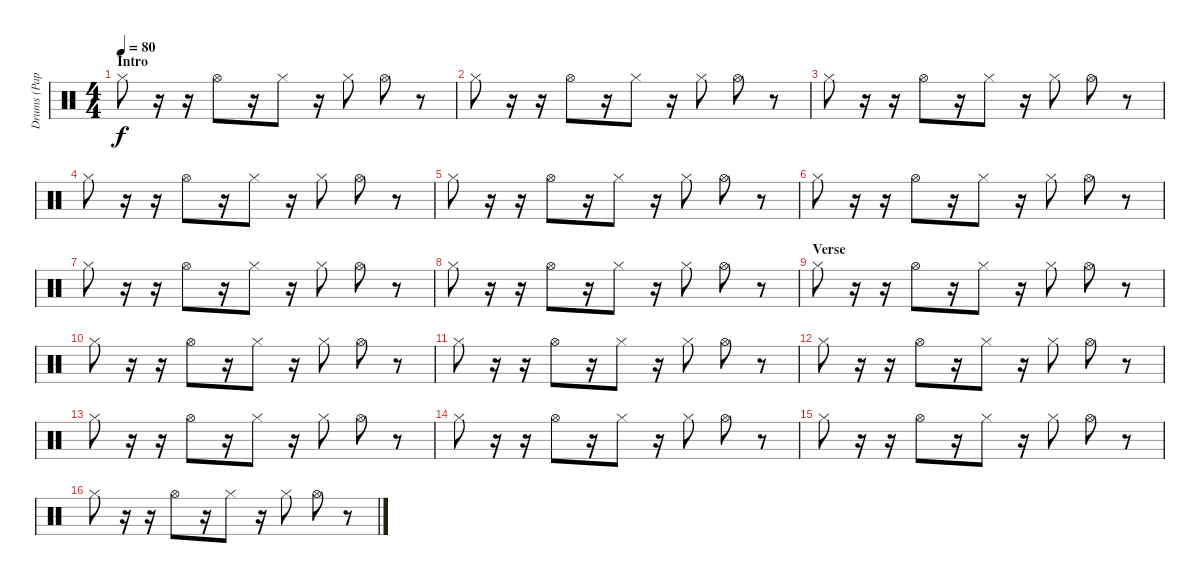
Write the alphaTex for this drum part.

\track ("Drums (Pappas)" "Drums (Pap") {instrument percussion}
\staff {score}
\articulation defaults
\ts (4 4)
\section ("" "Intro")
\tempo 80
\clef neutral
\ks c "Hi-Hat (closed)".8{dy f}
r.16 r.16 "Hi-Hat (open)".8 r.16 "Hi-Hat (closed)".8 r.16 "Hi-Hat (closed)".8 "Hi-Hat (open)".8 r.8 |
"Hi-Hat (closed)".8 r.16 r.16 "Hi-Hat (open)".8 r.16 "Hi-Hat (closed)".8 r.16 "Hi-Hat (closed)".8 "Hi-Hat (open)".8 r.8 |
"Hi-Hat (closed)".8 r.16 r.16 "Hi-Hat (open)".8 r.16 "Hi-Hat (closed)".8 r.16 "Hi-Hat (closed)".8 "Hi-Hat (open)".8 r.8 |
"Hi-Hat (closed)".8 r.16 r.16 "Hi-Hat (open)".8 r.16 "Hi-Hat (closed)".8 r.16 "Hi-Hat (closed)".8 "Hi-Hat (open)".8 r.8 |
"Hi-Hat (closed)".8 r.16 r.16 "Hi-Hat (open)".8 r.16 "Hi-Hat (closed)".8 r.16 "Hi-Hat (closed)".8 "Hi-Hat (open)".8 r.8 |
"Hi-Hat (closed)".8 r.16 r.16 "Hi-Hat (open)".8 r.16 "Hi-Hat (closed)".8 r.16 "Hi-Hat (closed)".8 "Hi-Hat (open)".8 r.8 |
"Hi-Hat (closed)".8 r.16 r.16 "Hi-Hat (open)".8 r.16 "Hi-Hat (closed)".8 r.16 "Hi-Hat (closed)".8 "Hi-Hat (open)".8 r.8 |
"Hi-Hat (closed)".8 r.16 r.16 "Hi-Hat (open)".8 r.16 "Hi-Hat (closed)".8 r.16 "Hi-Hat (closed)".8 "Hi-Hat (open)".8 r.8 |
\section ("" "Verse")
"Hi-Hat (closed)".8 r.16 r.16 "Hi-Hat (open)".8 r.16 "Hi-Hat (closed)".8 r.16 "Hi-Hat (closed)".8 "Hi-Hat (open)".8 r.8 |
"Hi-Hat (closed)".8 r.16 r.16 "Hi-Hat (open)".8 r.16 "Hi-Hat (closed)".8 r.16 "Hi-Hat (closed)".8 "Hi-Hat (open)".8 r.8 |
"Hi-Hat (closed)".8 r.16 r.16 "Hi-Hat (open)".8 r.16 "Hi-Hat (closed)".8 r.16 "Hi-Hat (closed)".8 "Hi-Hat (open)".8 r.8 |
"Hi-Hat (closed)".8 r.16 r.16 "Hi-Hat (open)".8 r.16 "Hi-Hat (closed)".8 r.16 "Hi-Hat (closed)".8 "Hi-Hat (open)".8 r.8 |
"Hi-Hat (closed)".8 r.16 r.16 "Hi-Hat (open)".8 r.16 "Hi-Hat (closed)".8 r.16 "Hi-Hat (closed)".8 "Hi-Hat (open)".8 r.8 |
"Hi-Hat (closed)".8 r.16 r.16 "Hi-Hat (open)".8 r.16 "Hi-Hat (closed)".8 r.16 "Hi-Hat (closed)".8 "Hi-Hat (open)".8 r.8 |
"Hi-Hat (closed)".8 r.16 r.16 "Hi-Hat (open)".8 r.16 "Hi-Hat (closed)".8 r.16 "Hi-Hat (closed)".8 "Hi-Hat (open)".8 r.8 |
"Hi-Hat (closed)".8 r.16 r.16 "Hi-Hat (open)".8 r.16 "Hi-Hat (closed)".8 r.16 "Hi-Hat (closed)".8 "Hi-Hat (open)".8 r.8
